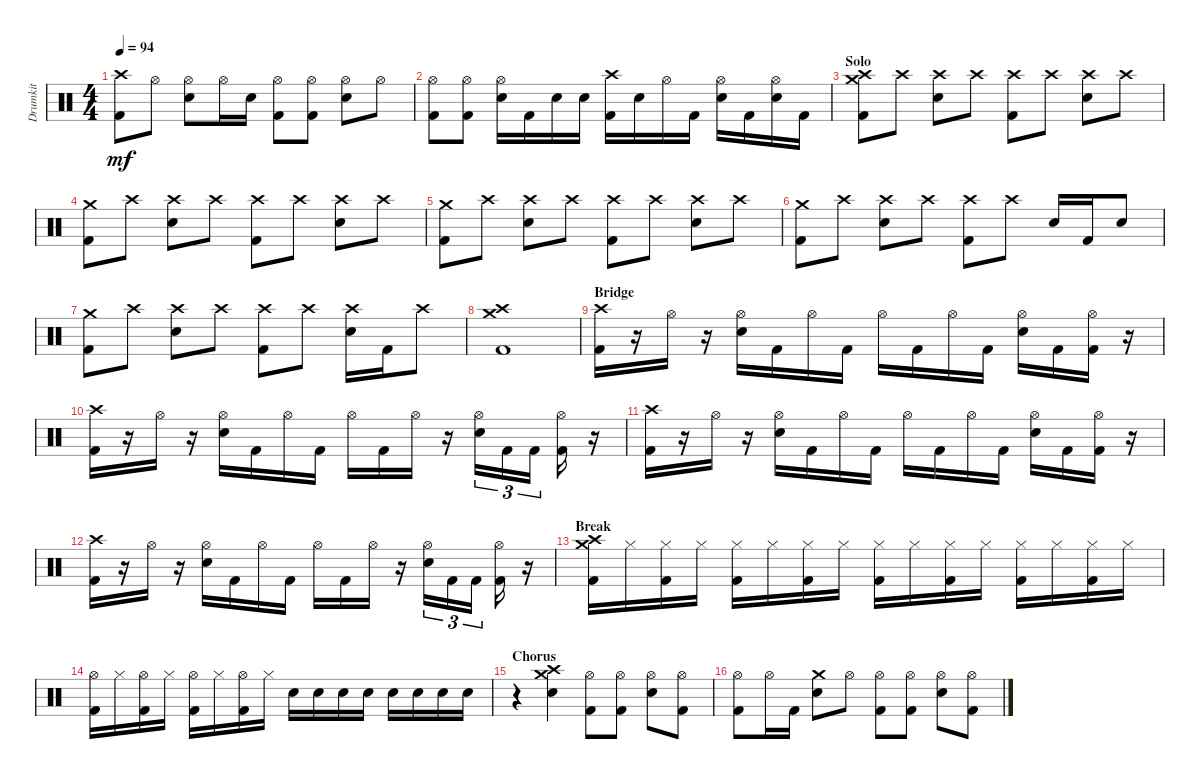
\track ("Drumkit" "Drumkit") {instrument percussion}
\staff {score}
\articulation defaults
\ts (4 4)
\tempo 94
\clef neutral
\ks c
("Crash high (hit)" "Kick (hit) 2").8{dy mf} "Hi-Hat (open)".8 ("Hi-Hat (open)" "Snare (hit) 2").8 "Hi-Hat (open)".16 "Snare (hit) 2".16 ("Hi-Hat (open)" "Kick (hit) 2").8 ("Hi-Hat (open)" "Kick (hit) 2").8 ("Hi-Hat (open)" "Snare (hit) 2").8 "Hi-Hat (open)".8 |
("Hi-Hat (open)" "Kick (hit) 2").8 ("Hi-Hat (open)" "Kick (hit) 2").8 ("Hi-Hat (open)" "Snare (hit) 2").16 "Kick (hit) 2".16 "Snare (hit) 2".16 "Snare (hit) 2".16 ("Kick (hit) 2" "Crash high (hit)").16 "Snare (hit) 2".16 "Hi-Hat (open)".16 "Kick (hit) 2".16 ("Snare (hit) 2" "Hi-Hat (open)").16 "Kick (hit) 2".16 ("Hi-Hat (open)" "Snare (hit) 2").16 "Kick (hit) 2".16 |
\section ("" "Solo")
("Crash medium (hit)" "Crash high (hit)" "Kick (hit) 2").8 "Crash high (hit)".8 ("Crash high (hit)" "Snare (hit) 2").8 "Crash high (hit)".8 ("Crash high (hit)" "Kick (hit) 2").8 "Crash high (hit)".8 ("Crash high (hit)" "Snare (hit) 2").8 "Crash high (hit)".8 |
("Crash medium (hit)" "Kick (hit) 2").8 "Crash high (hit)".8 ("Crash high (hit)" "Snare (hit) 2").8 "Crash high (hit)".8 ("Crash high (hit)" "Kick (hit) 2").8 "Crash high (hit)".8 ("Crash high (hit)" "Snare (hit) 2").8 "Crash high (hit)".8 |
("Crash medium (hit)" "Kick (hit) 2").8 "Crash high (hit)".8 ("Crash high (hit)" "Snare (hit) 2").8 "Crash high (hit)".8 ("Crash high (hit)" "Kick (hit) 2").8 "Crash high (hit)".8 ("Crash high (hit)" "Snare (hit) 2").8 "Crash high (hit)".8 |
("Crash medium (hit)" "Kick (hit) 2").8 "Crash high (hit)".8 ("Crash high (hit)" "Snare (hit) 2").8 "Crash high (hit)".8 ("Crash high (hit)" "Kick (hit) 2").8 "Crash high (hit)".8 "Snare (hit) 2".16 "Kick (hit) 2".16 "Snare (hit) 2".8 |
("Crash medium (hit)" "Kick (hit) 2").8 "Crash high (hit)".8 ("Crash high (hit)" "Snare (hit) 2").8 "Crash high (hit)".8 ("Crash high (hit)" "Kick (hit) 2").8 "Crash high (hit)".8 ("Snare (hit) 2" "Crash high (hit)").16 "Kick (hit) 2".16 "Crash high (hit)".8 |
("Crash medium (hit)" "Crash high (hit)" "Kick (hit) 2").1 |
\section ("" "Bridge")
("Crash high (hit)" "Kick (hit) 2").16 r.16 "Hi-Hat (open)".16 r.16 ("Hi-Hat (open)" "Snare (hit) 2").16 "Kick (hit) 2".16 "Hi-Hat (open)".16 "Kick (hit) 2".16 "Hi-Hat (open)".16 "Kick (hit) 2".16 "Hi-Hat (open)".16 "Kick (hit) 2".16 ("Hi-Hat (open)" "Snare (hit) 2").16 "Kick (hit) 2".16 ("Hi-Hat (open)" "Kick (hit) 2").16 r.16 |
("Crash high (hit)" "Kick (hit) 2").16 r.16 "Hi-Hat (open)".16 r.16 ("Hi-Hat (open)" "Snare (hit) 2").16 "Kick (hit) 2".16 "Hi-Hat (open)".16 "Kick (hit) 2".16 "Hi-Hat (open)".16 "Kick (hit) 2".16 "Hi-Hat (open)".16 r.16 ("Hi-Hat (open)" "Snare (hit) 2").16{tu (3 2)} "Kick (hit) 2".16{tu (3 2)} "Kick (hit) 2".16{tu (3 2)} ("Hi-Hat (open)" "Kick (hit) 2").16 r.16 |
("Crash high (hit)" "Kick (hit) 2").16 r.16 "Hi-Hat (open)".16 r.16 ("Hi-Hat (open)" "Snare (hit) 2").16 "Kick (hit) 2".16 "Hi-Hat (open)".16 "Kick (hit) 2".16 "Hi-Hat (open)".16 "Kick (hit) 2".16 "Hi-Hat (open)".16 "Kick (hit) 2".16 ("Hi-Hat (open)" "Snare (hit) 2").16 "Kick (hit) 2".16 ("Hi-Hat (open)" "Kick (hit) 2").16 r.16 |
("Crash high (hit)" "Kick (hit) 2").16 r.16 "Hi-Hat (open)".16 r.16 ("Hi-Hat (open)" "Snare (hit) 2").16 "Kick (hit) 2".16 "Hi-Hat (open)".16 "Kick (hit) 2".16 "Hi-Hat (open)".16 "Kick (hit) 2".16 "Hi-Hat (open)".16 r.16 ("Hi-Hat (open)" "Snare (hit) 2").16{tu (3 2)} "Kick (hit) 2".16{tu (3 2)} "Kick (hit) 2".16{tu (3 2)} ("Hi-Hat (open)" "Kick (hit) 2").16 r.16 |
\section ("" "Break")
("Crash medium (hit)" "Crash high (hit)" "Kick (hit) 2").16 "Hi-Hat (closed)".16 ("Hi-Hat (closed)" "Kick (hit) 2").16 "Hi-Hat (closed)".16 ("Hi-Hat (closed)" "Kick (hit) 2").16 "Hi-Hat (closed)".16 ("Hi-Hat (closed)" "Kick (hit) 2").16 "Hi-Hat (closed)".16 ("Hi-Hat (closed)" "Kick (hit) 2").16 "Hi-Hat (closed)".16 ("Hi-Hat (closed)" "Kick (hit) 2").16 "Hi-Hat (closed)".16 ("Hi-Hat (closed)" "Kick (hit) 2").16 "Hi-Hat (closed)".16 ("Hi-Hat (closed)" "Kick (hit) 2").16 "Hi-Hat (closed)".16 |
("Hi-Hat (open)" "Kick (hit) 2").16 "Hi-Hat (closed)".16 ("Hi-Hat (open)" "Kick (hit) 2").16 "Hi-Hat (closed)".16 ("Hi-Hat (open)" "Kick (hit) 2").16 "Hi-Hat (closed)".16 ("Hi-Hat (open)" "Kick (hit) 2").16 "Hi-Hat (closed)".16 "Snare (hit) 2".16 "Snare (hit) 2".16 "Snare (hit) 2".16 "Snare (hit) 2".16 "Snare (hit) 2".16 "Snare (hit) 2".16 "Snare (hit) 2".16 "Snare (hit) 2".16 |
\section ("" "Chorus")
r.4 ("Crash medium (hit)" "Crash high (hit)" "Snare (hit) 2").4 ("Hi-Hat (open)" "Kick (hit) 2").8 ("Hi-Hat (open)" "Kick (hit) 2").8 ("Hi-Hat (open)" "Snare (hit) 2").8 ("Hi-Hat (open)" "Kick (hit) 2").8 |
("Hi-Hat (open)" "Kick (hit) 2").8 "Hi-Hat (open)".16 "Kick (hit) 2".16 ("Crash medium (hit)" "Snare (hit) 2").8 "Hi-Hat (open)".8 ("Hi-Hat (open)" "Kick (hit) 2").8 ("Hi-Hat (open)" "Kick (hit) 2").8 ("Hi-Hat (open)" "Snare (hit) 2").8 ("Hi-Hat (open)" "Kick (hit) 2").8
